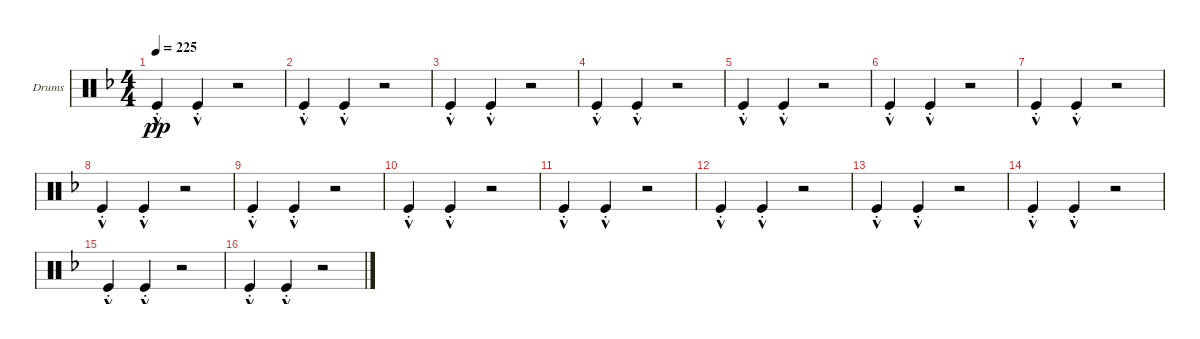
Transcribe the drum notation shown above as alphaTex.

\defaultSystemsLayout 4
\bracketExtendMode groupsimilarinstruments
\firstSystemTrackNameOrientation horizontal
\otherSystemsTrackNameOrientation horizontal
\track ("Drumkit" "Drums") {instrument percussion}
\staff {score}
\articulation defaults
\ts (4 4)
\tempo 225
\clef neutral
\scale
0.333333
\ks dminor "Kick (hit)"{hac st}.4{dy pp} "Kick (hit)"{hac st}.4
r.2 |
\scale
0.333333 "Kick (hit)"{hac st}.4 "Kick (hit)"{hac st}.4 r.2 |
"Kick (hit)"{hac st}.4 "Kick (hit)"{hac st}.4 r.2 |
"Kick (hit)"{hac st}.4 "Kick (hit)"{hac st}.4 r.2 |
"Kick (hit)"{hac st}.4 "Kick (hit)"{hac st}.4 r.2 |
"Kick (hit)"{hac st}.4 "Kick (hit)"{hac st}.4 r.2 |
"Kick (hit)"{hac st}.4 "Kick (hit)"{hac st}.4 r.2 |
"Kick (hit)"{hac st}.4 "Kick (hit)"{hac st}.4 r.2 |
"Kick (hit)"{hac st}.4 "Kick (hit)"{hac st}.4 r.2 |
"Kick (hit)"{hac st}.4 "Kick (hit)"{hac st}.4 r.2 |
"Kick (hit)"{hac st}.4 "Kick (hit)"{hac st}.4 r.2 |
"Kick (hit)"{hac st}.4 "Kick (hit)"{hac st}.4 r.2 |
"Kick (hit)"{hac st}.4 "Kick (hit)"{hac st}.4 r.2 |
"Kick (hit)"{hac st}.4 "Kick (hit)"{hac st}.4 r.2 |
"Kick (hit)"{hac st}.4 "Kick (hit)"{hac st}.4 r.2 |
"Kick (hit)"{hac st}.4 "Kick (hit)"{hac st}.4 r.2
